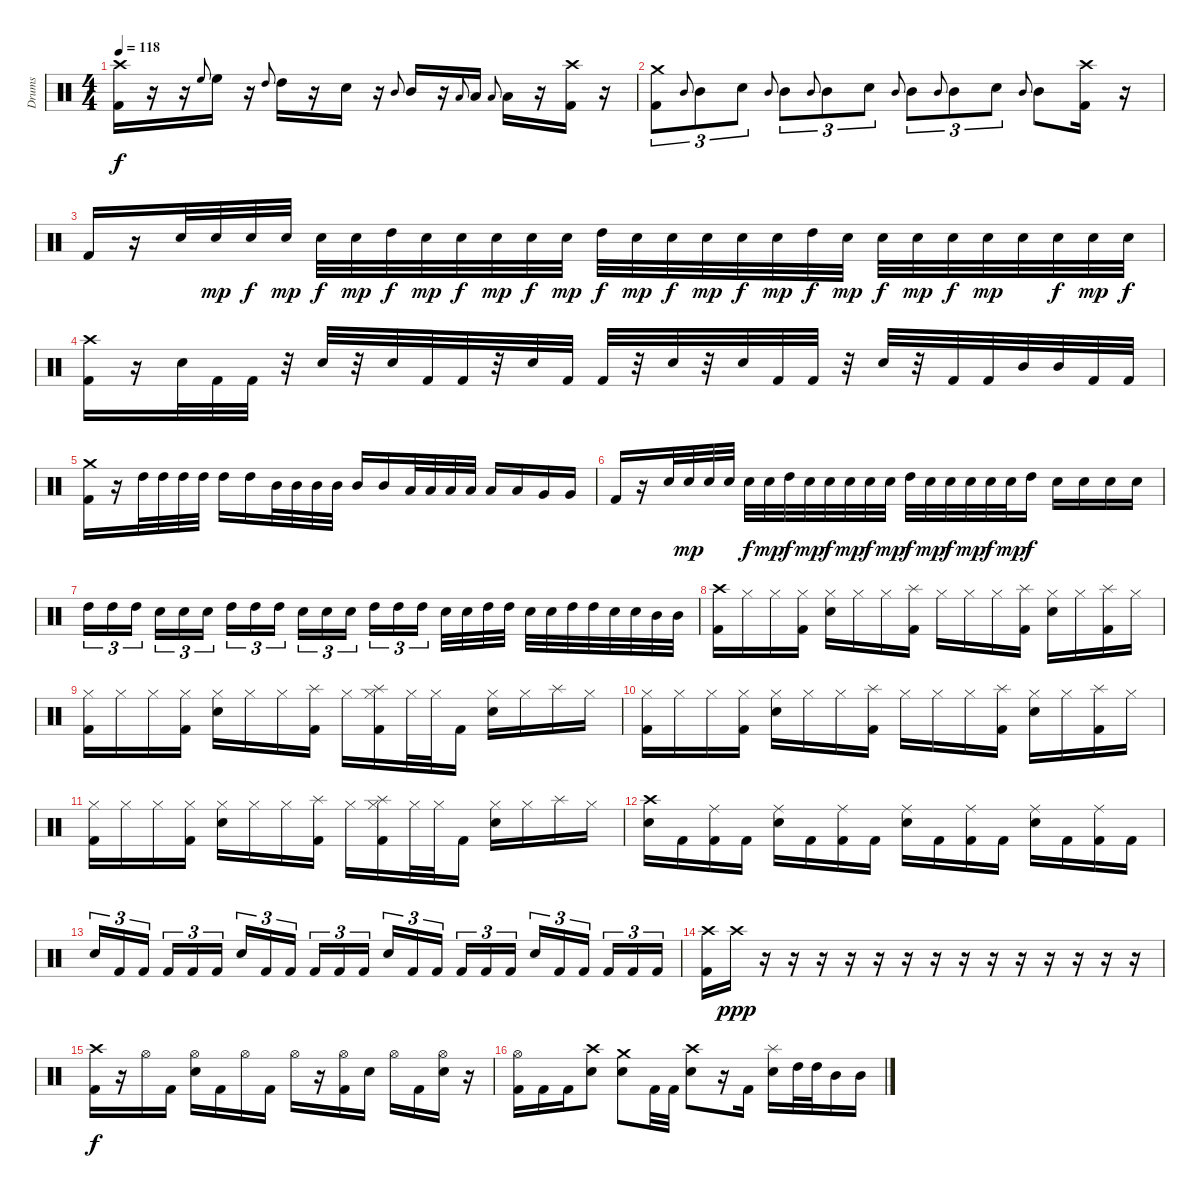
\track ("Drums" "Drums") {instrument percussion}
\staff {score}
\articulation defaults
\ts (4 4)
\tempo 118
\clef neutral
\ks c
("Kick (hit) 2" "Crash high (hit)").16{dy f} r.16 r.16 "High Floor Tom (hit)".8{gr onbeat} "High Floor Tom (hit)".16 r.16 "High Tom (hit)".8{gr onbeat} "High Tom (hit)".16 r.16 "Snare (hit) 2".16 r.16 "Mid Tom (hit)".8{gr onbeat} "Mid Tom (hit)".16 r.16 "Low Tom (hit)".8{gr onbeat} "Low Tom (hit)".16 "Low Tom (hit)".8{gr onbeat} "Low Tom (hit)".16 r.16 ("Kick (hit) 2" "Crash high (hit)").16 r.16 |
("Kick (hit) 2" "Crash medium (hit)").8{tu (3 2)} "Mid Tom (hit)".8{gr onbeat} "Mid Tom (hit)".8{tu (3 2)} "Snare (hit) 2".8{tu (3 2)} "Mid Tom (hit)".8{gr onbeat} "Mid Tom (hit)".8{tu (3 2)} "Mid Tom (hit)".8{gr onbeat} "Mid Tom (hit)".8{tu (3 2)} "Snare (hit) 2".8{tu (3 2)} "Mid Tom (hit)".8{gr onbeat} "Mid Tom (hit)".8{tu (3 2)} "Mid Tom (hit)".8{gr onbeat} "Mid Tom (hit)".8{tu (3 2)} "Snare (hit) 2".8{tu (3 2)} "Mid Tom (hit)".8{gr onbeat} "Mid Tom (hit)".8 ("Kick (hit) 2" "Crash high (hit)").16 r.16 |
"Kick (hit) 2".16 r.16 "Snare (hit) 2".32 "Snare (hit) 2".32{dy mp} "Snare (hit) 2".32{dy f} "Snare (hit) 2".32{dy mp} "Snare (hit) 2".32{dy f} "Snare (hit) 2".32{dy mp} "High Tom (hit)".32{dy f} "Snare (hit) 2".32{dy mp} "Snare (hit) 2".32{dy f} "Snare (hit) 2".32{dy mp} "Snare (hit) 2".32{dy f} "Snare (hit) 2".32{dy mp} "High Tom (hit)".32{dy f} "Snare (hit) 2".32{dy mp} "Snare (hit) 2".32{dy f} "Snare (hit) 2".32{dy mp} "Snare (hit) 2".32{dy f} "Snare (hit) 2".32{dy mp} "High Tom (hit)".32{dy f} "Snare (hit) 2".32{dy mp} "Snare (hit) 2".32{dy f} "Snare (hit) 2".32{dy mp} "Snare (hit) 2".32{dy f} "Snare (hit) 2".32{dy mp} "Snare (hit) 2".32 "Snare (hit) 2".32{dy f} "Snare (hit) 2".32{dy mp} "Snare (hit) 2".32{dy f} |
("Kick (hit) 2" "Crash high (hit)").16 r.16 "Snare (hit) 2".32 "Kick (hit) 2".32 "Kick (hit) 2".32 r.32 "Snare (hit) 2".32 r.32 "Snare (hit) 2".32 "Kick (hit) 2".32 "Kick (hit) 2".32 r.32 "Snare (hit) 2".32 "Kick (hit) 2".32 "Kick (hit) 2".32 r.32 "Snare (hit) 2".32 r.32 "Snare (hit) 2".32 "Kick (hit) 2".32 "Kick (hit) 2".32 r.32 "Snare (hit) 2".32 r.32 "Kick (hit) 2".32 "Kick (hit) 2".32 "Mid Tom (hit)".32 "Mid Tom (hit)".32 "Kick (hit) 2".32 "Kick (hit) 2".32 |
("Kick (hit) 2" "Crash medium (hit)").16 r.16 "High Tom (hit)".32 "High Tom (hit)".32 "High Tom (hit)".32 "High Tom (hit)".32 "High Tom (hit)".16 "High Tom (hit)".16 "Mid Tom (hit)".32 "Mid Tom (hit)".32 "Mid Tom (hit)".32 "Mid Tom (hit)".32 "Mid Tom (hit)".16 "Mid Tom (hit)".16 "Low Tom (hit)".32 "Low Tom (hit)".32 "Low Tom (hit)".32 "Low Tom (hit)".32 "Low Tom (hit)".16 "Low Tom (hit)".16 "Very Low Tom (hit)".16 "Very Low Tom (hit)".16 |
"Kick (hit) 2".16 r.16 "Snare (hit) 2".32 "Snare (hit) 2".32{dy mp} "Snare (hit) 2".32 "Snare (hit) 2".32 "Snare (hit) 2".32{dy f} "Snare (hit) 2".32{dy mp} "High Tom (hit)".32{dy f} "Snare (hit) 2".32{dy mp} "Snare (hit) 2".32{dy f} "Snare (hit) 2".32{dy mp} "Snare (hit) 2".32{dy f} "Snare (hit) 2".32{dy mp} "High Tom (hit)".32{dy f} "Snare (hit) 2".32{dy mp} "Snare (hit) 2".32{dy f} "Snare (hit) 2".32{dy mp} "Snare (hit) 2".32{dy f} "Snare (hit) 2".32{dy mp} "High Tom (hit)".16{dy f} "Snare (hit) 2".16 "Snare (hit) 2".16 "Snare (hit) 2".16 "Snare (hit) 2".16 |
"High Tom (hit)".16{tu (3 2)} "High Tom (hit)".16{tu (3 2)} "High Tom (hit)".16{tu (3 2) beam splitsecondary} "Snare (hit) 2".16{tu (3 2)} "Snare (hit) 2".16{tu (3 2)} "Snare (hit) 2".16{tu (3 2)} "High Tom (hit)".16{tu (3 2)} "High Tom (hit)".16{tu (3 2)} "High Tom (hit)".16{tu (3 2) beam splitsecondary} "Snare (hit) 2".16{tu (3 2)} "Snare (hit) 2".16{tu (3 2)} "Snare (hit) 2".16{tu (3 2)} "High Tom (hit)".16{tu (3 2)} "High Tom (hit)".16{tu (3 2)} "High Tom (hit)".16{tu (3 2) beam splitsecondary} "Snare (hit) 2".32 "Snare (hit) 2".32 "High Tom (hit)".32 "High Tom (hit)".32 "Snare (hit) 2".32 "Snare (hit) 2".32 "High Tom (hit)".32 "High Tom (hit)".32 "Snare (hit) 2".32 "Snare (hit) 2".32 "Mid Tom (hit)".32 "Mid Tom (hit)".32 |
("Kick (hit) 2" "Crash high (hit)").16 "Hi-Hat (closed)".16 "Hi-Hat (closed)".16 ("Hi-Hat (closed)" "Kick (hit) 2").16 ("Hi-Hat (closed)" "Snare (hit) 2").16 "Hi-Hat (closed)".16 "Hi-Hat (closed)".16 ("Kick (hit) 2" "Splash (hit)").16 "Hi-Hat (closed)".16 "Hi-Hat (closed)".16 "Hi-Hat (closed)".16 ("Splash (hit)" "Kick (hit) 2").16 ("Hi-Hat (closed)" "Snare (hit) 2").16 "Hi-Hat (closed)".16 ("Splash (hit)" "Kick (hit) 2").16 "Hi-Hat (closed)".16 |
("Kick (hit) 2" "Hi-Hat (closed)").16 "Hi-Hat (closed)".16 "Hi-Hat (closed)".16 ("Hi-Hat (closed)" "Kick (hit) 2").16 ("Hi-Hat (closed)" "Snare (hit) 2").16 "Hi-Hat (closed)".16 "Hi-Hat (closed)".16 ("Splash (hit)" "Kick (hit) 2").16 "Hi-Hat (closed)".16 ("Hi-Hat (closed)" "Kick (hit) 2" "Splash (hit)").16 "Hi-Hat (closed)".32 "Hi-Hat (closed)".32 "Kick (hit) 2".16 ("Hi-Hat (closed)" "Snare (hit) 2").16 "Hi-Hat (closed)".16 "Splash (hit)".16 "Hi-Hat (closed)".16 |
("Kick (hit) 2" "Hi-Hat (closed)").16 "Hi-Hat (closed)".16 "Hi-Hat (closed)".16 ("Hi-Hat (closed)" "Kick (hit) 2").16 ("Hi-Hat (closed)" "Snare (hit) 2").16 "Hi-Hat (closed)".16 "Hi-Hat (closed)".16 ("Kick (hit) 2" "Splash (hit)").16 "Hi-Hat (closed)".16 "Hi-Hat (closed)".16 "Hi-Hat (closed)".16 ("Splash (hit)" "Kick (hit) 2").16 ("Hi-Hat (closed)" "Snare (hit) 2").16 "Hi-Hat (closed)".16 ("Splash (hit)" "Kick (hit) 2").16 "Hi-Hat (closed)".16 |
("Kick (hit) 2" "Hi-Hat (closed)").16 "Hi-Hat (closed)".16 "Hi-Hat (closed)".16 ("Hi-Hat (closed)" "Kick (hit) 2").16 ("Hi-Hat (closed)" "Snare (hit) 2").16 "Hi-Hat (closed)".16 "Hi-Hat (closed)".16 ("Splash (hit)" "Kick (hit) 2").16 "Hi-Hat (closed)".16 ("Hi-Hat (closed)" "Kick (hit) 2" "Splash (hit)").16 "Hi-Hat (closed)".32 "Hi-Hat (closed)".32 "Kick (hit) 2".16 ("Hi-Hat (closed)" "Snare (hit) 2").16 "Hi-Hat (closed)".16 "Splash (hit)".16 "Hi-Hat (closed)".16 |
("Snare (hit) 2" "Crash high (hit)").16 "Kick (hit) 2".16 ("Kick (hit) 2" "Ride (middle)").16 "Kick (hit) 2".16 ("Snare (hit) 2" "Ride (middle)").16 "Kick (hit) 2".16 ("Kick (hit) 2" "Ride (middle)").16 "Kick (hit) 2".16 ("Snare (hit) 2" "Ride (middle)").16 "Kick (hit) 2".16 ("Kick (hit) 2" "Ride (middle)").16 "Kick (hit) 2".16 ("Snare (hit) 2" "Ride (middle)").16 "Kick (hit) 2".16 ("Kick (hit) 2" "Ride (middle)").16 "Kick (hit) 2".16 |
"Snare (hit) 2".16{tu (3 2)} "Kick (hit) 2".16{tu (3 2)} "Kick (hit) 2".16{tu (3 2) beam splitsecondary} "Kick (hit) 2".16{tu (3 2)} "Kick (hit) 2".16{tu (3 2)} "Kick (hit) 2".16{tu (3 2)} "Snare (hit) 2".16{tu (3 2)} "Kick (hit) 2".16{tu (3 2)} "Kick (hit) 2".16{tu (3 2) beam splitsecondary} "Kick (hit) 2".16{tu (3 2)} "Kick (hit) 2".16{tu (3 2)} "Kick (hit) 2".16{tu (3 2)} "Snare (hit) 2".16{tu (3 2)} "Kick (hit) 2".16{tu (3 2)} "Kick (hit) 2".16{tu (3 2) beam splitsecondary} "Kick (hit) 2".16{tu (3 2)} "Kick (hit) 2".16{tu (3 2)} "Kick (hit) 2".16{tu (3 2)} "Snare (hit) 2".16{tu (3 2)} "Kick (hit) 2".16{tu (3 2)} "Kick (hit) 2".16{tu (3 2) beam splitsecondary} "Kick (hit) 2".16{tu (3 2)} "Kick (hit) 2".16{tu (3 2)} "Kick (hit) 2".16{tu (3 2)} |
("Kick (hit) 2" "Crash high (hit)").16 "Crash high (hit)".16{dy ppp} r.16 r.16 r.16 r.16 r.16 r.16 r.16 r.16 r.16 r.16 r.16 r.16 r.16 r.16 |
("Kick (hit) 2" "Crash high (hit)").16{dy f} r.16 "Hi-Hat (open)".16 "Kick (hit) 2".16 ("Snare (hit) 2" "Hi-Hat (open)").16 "Kick (hit) 2".16 "Hi-Hat (open)".16 "Kick (hit) 2".16 "Hi-Hat (open)".16 r.16 ("Kick (hit) 2" "Hi-Hat (open)").16 "Snare (hit) 2".16 "Hi-Hat (open)".16 "Kick (hit) 2".16 ("Snare (hit) 2" "Hi-Hat (open)").16 r.16 |
("Kick (hit) 2" "Hi-Hat (open)").16 "Kick (hit) 2".16 "Kick (hit) 2".16 ("Snare (hit) 2" "Crash high (hit)").8 ("Snare (hit) 2" "Crash medium (hit)").8 "Kick (hit) 2".32 "Kick (hit) 2".32 ("Snare (hit) 2" "Crash high (hit)").8 r.16 "Kick (hit) 2".16 ("Snare (hit) 2" "Splash (hit)").16 "High Tom (hit)".32 "High Tom (hit)".32 "Mid Tom (hit)".16 "Mid Tom (hit)".16
